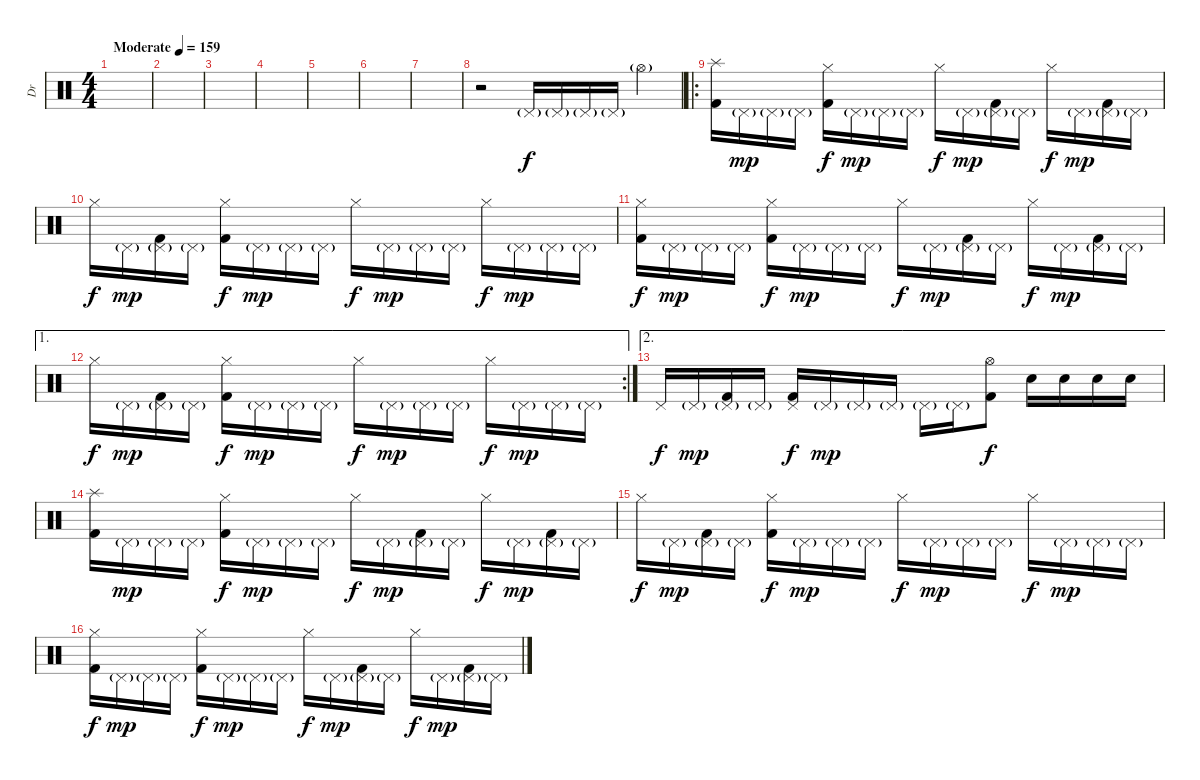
\track ("Dr" "Dr") {instrument percussion}
\staff {score}
\articulation defaults
\ts (4 4)
\tempo (159 "Moderate")
\clef neutral
\ks c
|
|
|
|
|
|
|
r.2 "Pedal Hi-Hat (hit)"{g}.16 "Pedal Hi-Hat (hit)"{g}.16 "Pedal Hi-Hat (hit)"{g}.16 "Pedal Hi-Hat (hit)"{g}.16 "Hi-Hat (open)"{g}.4 |
\ro
("Splash (hit)" "Kick (hit) 2").16{dy f} "Pedal Hi-Hat (hit)"{g}.16{dy mp} "Pedal Hi-Hat (hit)"{g}.16 "Pedal Hi-Hat (hit)"{g}.16 ("Hi-Hat (closed)" "Kick (hit) 2").16{dy f} "Pedal Hi-Hat (hit)"{g}.16{dy mp} "Pedal Hi-Hat (hit)"{g}.16 "Pedal Hi-Hat (hit)"{g}.16 "Hi-Hat (closed)".16{dy f} "Pedal Hi-Hat (hit)"{g}.16{dy mp} ("Pedal Hi-Hat (hit)"{g} "Kick (hit) 2").16 "Pedal Hi-Hat (hit)"{g}.16 "Hi-Hat (closed)".16{dy f} "Pedal Hi-Hat (hit)"{g}.16{dy mp} ("Pedal Hi-Hat (hit)"{g} "Kick (hit) 2").16 "Pedal Hi-Hat (hit)"{g}.16 |
"Hi-Hat (closed)".16{dy f} "Pedal Hi-Hat (hit)"{g}.16{dy mp} ("Pedal Hi-Hat (hit)"{g} "Kick (hit) 2").16 "Pedal Hi-Hat (hit)"{g}.16 ("Hi-Hat (closed)" "Kick (hit) 2").16{dy f} "Pedal Hi-Hat (hit)"{g}.16{dy mp} "Pedal Hi-Hat (hit)"{g}.16 "Pedal Hi-Hat (hit)"{g}.16 "Hi-Hat (closed)".16{dy f} "Pedal Hi-Hat (hit)"{g}.16{dy mp} "Pedal Hi-Hat (hit)"{g}.16 "Pedal Hi-Hat (hit)"{g}.16 "Hi-Hat (closed)".16{dy f} "Pedal Hi-Hat (hit)"{g}.16{dy mp} "Pedal Hi-Hat (hit)"{g}.16 "Pedal Hi-Hat (hit)"{g}.16 |
("Hi-Hat (closed)" "Kick (hit) 2").16{dy f} "Pedal Hi-Hat (hit)"{g}.16{dy mp} "Pedal Hi-Hat (hit)"{g}.16 "Pedal Hi-Hat (hit)"{g}.16 ("Hi-Hat (closed)" "Kick (hit) 2").16{dy f} "Pedal Hi-Hat (hit)"{g}.16{dy mp} "Pedal Hi-Hat (hit)"{g}.16 "Pedal Hi-Hat (hit)"{g}.16 "Hi-Hat (closed)".16{dy f} "Pedal Hi-Hat (hit)"{g}.16{dy mp} ("Pedal Hi-Hat (hit)"{g} "Kick (hit) 2").16 "Pedal Hi-Hat (hit)"{g}.16 "Hi-Hat (closed)".16{dy f} "Pedal Hi-Hat (hit)"{g}.16{dy mp} ("Pedal Hi-Hat (hit)"{g} "Kick (hit) 2").16 "Pedal Hi-Hat (hit)"{g}.16 |
\ae 1
\rc 2 "Hi-Hat (closed)".16{dy f} "Pedal Hi-Hat (hit)"{g}.16{dy mp}
("Pedal Hi-Hat (hit)"{g} "Kick (hit) 2").16 "Pedal Hi-Hat (hit)"{g}.16 ("Hi-Hat (closed)" "Kick (hit) 2").16{dy f} "Pedal Hi-Hat (hit)"{g}.16{dy mp} "Pedal Hi-Hat (hit)"{g}.16 "Pedal Hi-Hat (hit)"{g}.16 "Hi-Hat (closed)".16{dy f} "Pedal Hi-Hat (hit)"{g}.16{dy mp} "Pedal Hi-Hat (hit)"{g}.16 "Pedal Hi-Hat (hit)"{g}.16 "Hi-Hat (closed)".16{dy f} "Pedal Hi-Hat (hit)"{g}.16{dy mp} "Pedal Hi-Hat (hit)"{g}.16 "Pedal Hi-Hat (hit)"{g}.16 |
\ae 2 "Pedal Hi-Hat (hit)".16{dy f} "Pedal Hi-Hat (hit)"{g}.16{dy mp}
("Pedal Hi-Hat (hit)"{g} "Kick (hit) 2").16 "Pedal Hi-Hat (hit)"{g}.16 ("Pedal Hi-Hat (hit)" "Kick (hit) 2").16{dy f} "Pedal Hi-Hat (hit)"{g}.16{dy mp} "Pedal Hi-Hat (hit)"{g}.16 "Pedal Hi-Hat (hit)"{g}.16 "Pedal Hi-Hat (hit)"{g}.16 "Pedal Hi-Hat (hit)"{g}.16 ("Hi-Hat (open)" "Kick (hit) 2").8{dy f} "Electric Snare (hit)".16 "Electric Snare (hit)".16 "Electric Snare (hit)".16 "Electric Snare (hit)".16 |
("Splash (hit)" "Kick (hit) 2").16 "Pedal Hi-Hat (hit)"{g}.16{dy mp} "Pedal Hi-Hat (hit)"{g}.16 "Pedal Hi-Hat (hit)"{g}.16 ("Hi-Hat (closed)" "Kick (hit) 2").16{dy f} "Pedal Hi-Hat (hit)"{g}.16{dy mp} "Pedal Hi-Hat (hit)"{g}.16 "Pedal Hi-Hat (hit)"{g}.16 "Hi-Hat (closed)".16{dy f} "Pedal Hi-Hat (hit)"{g}.16{dy mp} ("Pedal Hi-Hat (hit)"{g} "Kick (hit) 2").16 "Pedal Hi-Hat (hit)"{g}.16 "Hi-Hat (closed)".16{dy f} "Pedal Hi-Hat (hit)"{g}.16{dy mp} ("Pedal Hi-Hat (hit)"{g} "Kick (hit) 2").16 "Pedal Hi-Hat (hit)"{g}.16 |
"Hi-Hat (closed)".16{dy f} "Pedal Hi-Hat (hit)"{g}.16{dy mp} ("Pedal Hi-Hat (hit)"{g} "Kick (hit) 2").16 "Pedal Hi-Hat (hit)"{g}.16 ("Hi-Hat (closed)" "Kick (hit) 2").16{dy f} "Pedal Hi-Hat (hit)"{g}.16{dy mp} "Pedal Hi-Hat (hit)"{g}.16 "Pedal Hi-Hat (hit)"{g}.16 "Hi-Hat (closed)".16{dy f} "Pedal Hi-Hat (hit)"{g}.16{dy mp} "Pedal Hi-Hat (hit)"{g}.16 "Pedal Hi-Hat (hit)"{g}.16 "Hi-Hat (closed)".16{dy f} "Pedal Hi-Hat (hit)"{g}.16{dy mp} "Pedal Hi-Hat (hit)"{g}.16 "Pedal Hi-Hat (hit)"{g}.16 |
("Hi-Hat (closed)" "Kick (hit) 2").16{dy f} "Pedal Hi-Hat (hit)"{g}.16{dy mp} "Pedal Hi-Hat (hit)"{g}.16 "Pedal Hi-Hat (hit)"{g}.16 ("Hi-Hat (closed)" "Kick (hit) 2").16{dy f} "Pedal Hi-Hat (hit)"{g}.16{dy mp} "Pedal Hi-Hat (hit)"{g}.16 "Pedal Hi-Hat (hit)"{g}.16 "Hi-Hat (closed)".16{dy f} "Pedal Hi-Hat (hit)"{g}.16{dy mp} ("Pedal Hi-Hat (hit)"{g} "Kick (hit) 2").16 "Pedal Hi-Hat (hit)"{g}.16 "Hi-Hat (closed)".16{dy f} "Pedal Hi-Hat (hit)"{g}.16{dy mp} ("Pedal Hi-Hat (hit)"{g} "Kick (hit) 2").16 "Pedal Hi-Hat (hit)"{g}.16
